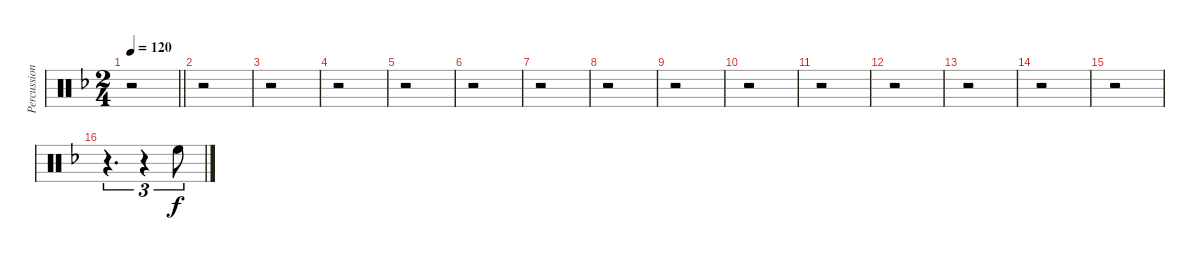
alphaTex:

\track ("Percussion" "Percussion") {instrument percussion}
\staff {score}
\articulation defaults
\ts (2 4)
\tempo 120
\clef neutral
\barLineRight lightlight
\ks dminor
r.2{dy f} |
r.2 |
r.2 |
r.2 |
r.2 |
r.2 |
r.2 |
r.2 |
r.2 |
r.2 |
r.2 |
r.2 |
r.2 |
r.2 |
r.2 |
r.4{d tu (3 2) volume 13 balance 8} r.4{tu (3 2)} "High Floor Tom (hit)".8{tu (3 2)}
